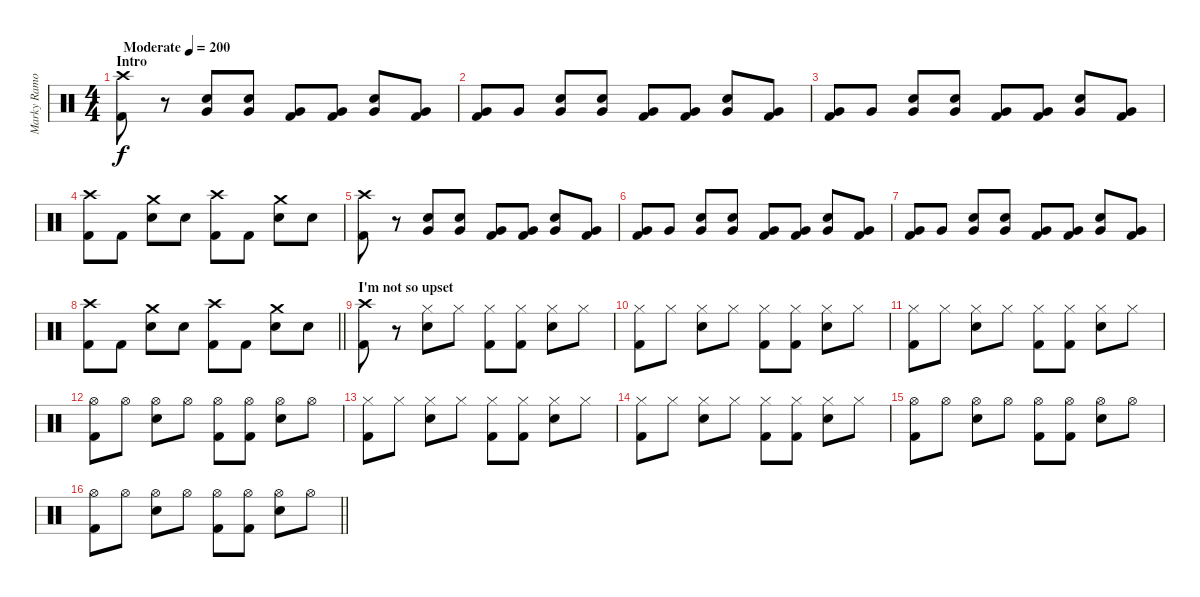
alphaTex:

\track ("Marky Ramone" "Marky Ramo") {instrument percussion}
\staff {score}
\articulation defaults
\ts (4 4)
\section ("" "Intro")
\tempo (200 "Moderate")
\clef neutral
\ks c
("Crash high (hit)" "Kick (hit) 2").8{dy f} r.8 ("Very Low Tom (hit)" "Electric Snare (hit)").8 ("Very Low Tom (hit)" "Electric Snare (hit)").8 ("Very Low Tom (hit)" "Kick (hit) 2").8 ("Very Low Tom (hit)" "Kick (hit) 2").8 ("Very Low Tom (hit)" "Electric Snare (hit)").8 ("Very Low Tom (hit)" "Kick (hit) 2").8 |
("Very Low Tom (hit)" "Kick (hit) 2").8 "Very Low Tom (hit)".8 ("Very Low Tom (hit)" "Electric Snare (hit)").8 ("Very Low Tom (hit)" "Electric Snare (hit)").8 ("Very Low Tom (hit)" "Kick (hit) 2").8 ("Very Low Tom (hit)" "Kick (hit) 2").8 ("Very Low Tom (hit)" "Electric Snare (hit)").8 ("Very Low Tom (hit)" "Kick (hit) 2").8 |
("Very Low Tom (hit)" "Kick (hit) 2").8 "Very Low Tom (hit)".8 ("Very Low Tom (hit)" "Electric Snare (hit)").8 ("Very Low Tom (hit)" "Electric Snare (hit)").8 ("Very Low Tom (hit)" "Kick (hit) 2").8 ("Very Low Tom (hit)" "Kick (hit) 2").8 ("Very Low Tom (hit)" "Electric Snare (hit)").8 ("Very Low Tom (hit)" "Kick (hit) 2").8 |
("Crash high (hit)" "Kick (hit) 2").8 "Kick (hit) 2".8 ("Crash medium (hit)" "Electric Snare (hit)").8 "Electric Snare (hit)".8 ("Crash high (hit)" "Kick (hit) 2").8 "Kick (hit) 2".8 ("Crash medium (hit)" "Electric Snare (hit)").8 "Electric Snare (hit)".8 |
("Crash high (hit)" "Kick (hit) 2").8 r.8 ("Very Low Tom (hit)" "Electric Snare (hit)").8 ("Very Low Tom (hit)" "Electric Snare (hit)").8 ("Very Low Tom (hit)" "Kick (hit) 2").8 ("Very Low Tom (hit)" "Kick (hit) 2").8 ("Very Low Tom (hit)" "Electric Snare (hit)").8 ("Very Low Tom (hit)" "Kick (hit) 2").8 |
("Very Low Tom (hit)" "Kick (hit) 2").8 "Very Low Tom (hit)".8 ("Very Low Tom (hit)" "Electric Snare (hit)").8 ("Very Low Tom (hit)" "Electric Snare (hit)").8 ("Very Low Tom (hit)" "Kick (hit) 2").8 ("Very Low Tom (hit)" "Kick (hit) 2").8 ("Very Low Tom (hit)" "Electric Snare (hit)").8 ("Very Low Tom (hit)" "Kick (hit) 2").8 |
("Very Low Tom (hit)" "Kick (hit) 2").8 "Very Low Tom (hit)".8 ("Very Low Tom (hit)" "Electric Snare (hit)").8 ("Very Low Tom (hit)" "Electric Snare (hit)").8 ("Very Low Tom (hit)" "Kick (hit) 2").8 ("Very Low Tom (hit)" "Kick (hit) 2").8 ("Very Low Tom (hit)" "Electric Snare (hit)").8 ("Very Low Tom (hit)" "Kick (hit) 2").8 |
\barLineRight lightlight
("Crash high (hit)" "Kick (hit) 2").8 "Kick (hit) 2".8 ("Crash medium (hit)" "Electric Snare (hit)").8 "Electric Snare (hit)".8 ("Crash high (hit)" "Kick (hit) 2").8 "Kick (hit) 2".8 ("Crash medium (hit)" "Electric Snare (hit)").8 "Electric Snare (hit)".8 |
\section ("" "I'm not so upset")
("Crash high (hit)" "Kick (hit) 2").8 r.8 ("Hi-Hat (closed)" "Electric Snare (hit)").8 "Hi-Hat (closed)".8 ("Hi-Hat (closed)" "Kick (hit) 2").8 ("Hi-Hat (closed)" "Kick (hit) 2").8 ("Hi-Hat (closed)" "Electric Snare (hit)").8 "Hi-Hat (closed)".8 |
("Hi-Hat (closed)" "Kick (hit) 2").8 "Hi-Hat (closed)".8 ("Hi-Hat (closed)" "Electric Snare (hit)").8 "Hi-Hat (closed)".8 ("Hi-Hat (closed)" "Kick (hit) 2").8 ("Hi-Hat (closed)" "Kick (hit) 2").8 ("Hi-Hat (closed)" "Electric Snare (hit)").8 "Hi-Hat (closed)".8 |
("Hi-Hat (closed)" "Kick (hit) 2").8 "Hi-Hat (closed)".8 ("Hi-Hat (closed)" "Electric Snare (hit)").8 "Hi-Hat (closed)".8 ("Hi-Hat (closed)" "Kick (hit) 2").8 ("Hi-Hat (closed)" "Kick (hit) 2").8 ("Hi-Hat (closed)" "Electric Snare (hit)").8 "Hi-Hat (closed)".8 |
("Hi-Hat (open)" "Kick (hit) 2").8 "Hi-Hat (open)".8 ("Hi-Hat (open)" "Electric Snare (hit)").8 "Hi-Hat (open)".8 ("Hi-Hat (open)" "Kick (hit) 2").8 ("Hi-Hat (open)" "Kick (hit) 2").8 ("Hi-Hat (open)" "Electric Snare (hit)").8 "Hi-Hat (open)".8 |
("Hi-Hat (closed)" "Kick (hit) 2").8 "Hi-Hat (closed)".8 ("Hi-Hat (closed)" "Electric Snare (hit)").8 "Hi-Hat (closed)".8 ("Hi-Hat (closed)" "Kick (hit) 2").8 ("Hi-Hat (closed)" "Kick (hit) 2").8 ("Hi-Hat (closed)" "Electric Snare (hit)").8 "Hi-Hat (closed)".8 |
("Hi-Hat (closed)" "Kick (hit) 2").8 "Hi-Hat (closed)".8 ("Hi-Hat (closed)" "Electric Snare (hit)").8 "Hi-Hat (closed)".8 ("Hi-Hat (closed)" "Kick (hit) 2").8 ("Hi-Hat (closed)" "Kick (hit) 2").8 ("Hi-Hat (closed)" "Electric Snare (hit)").8 "Hi-Hat (closed)".8 |
("Hi-Hat (open)" "Kick (hit) 2").8 "Hi-Hat (open)".8 ("Hi-Hat (open)" "Electric Snare (hit)").8 "Hi-Hat (open)".8 ("Hi-Hat (open)" "Kick (hit) 2").8 ("Hi-Hat (open)" "Kick (hit) 2").8 ("Hi-Hat (open)" "Electric Snare (hit)").8 "Hi-Hat (open)".8 |
\barLineRight lightlight
("Hi-Hat (open)" "Kick (hit) 2").8 "Hi-Hat (open)".8 ("Hi-Hat (open)" "Electric Snare (hit)").8 "Hi-Hat (open)".8 ("Hi-Hat (open)" "Kick (hit) 2").8 ("Hi-Hat (open)" "Kick (hit) 2").8 ("Hi-Hat (open)" "Electric Snare (hit)").8 "Hi-Hat (open)".8
